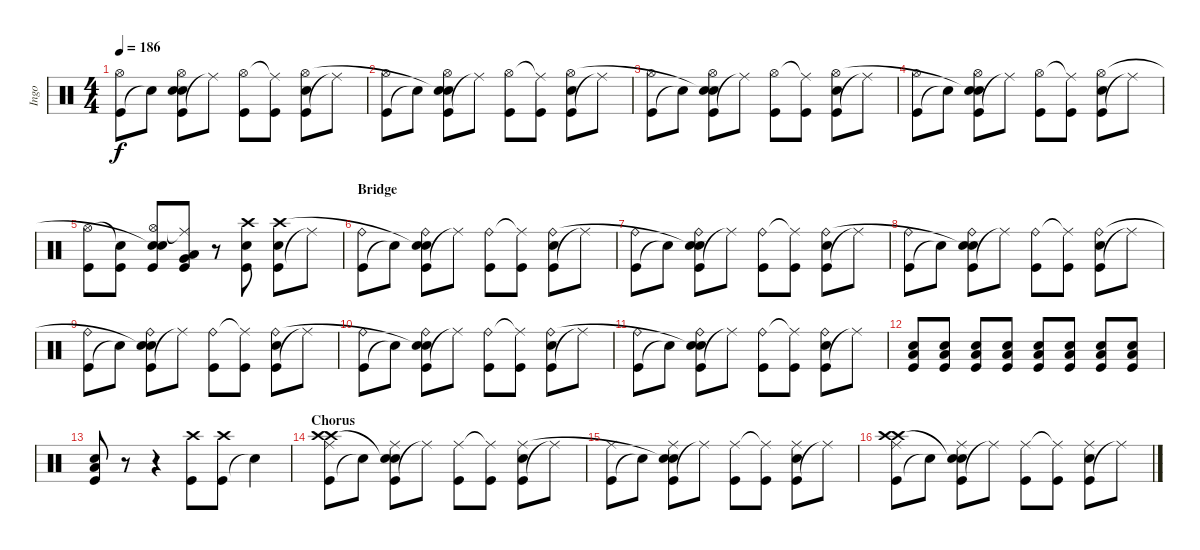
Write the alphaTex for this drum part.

\track ("Ingo" "Ingo") {instrument percussion}
\staff {score}
\articulation defaults
\ts (4 4)
\tempo 186
\clef neutral
\ks c
("Kick (hit)" "Hi-Hat (open)").8{dy f} "Snare (hit)"{t}.8 ("Kick (hit)" "Snare (hit) 2" "Snare (hit)"{t} "Hi-Hat (open)").8 "Ride (middle)"{t}.8 ("Kick (hit)" "Hi-Hat (open)").8 ("Kick (hit)" "Ride (middle)"{t}).8 ("Kick (hit)" "Snare (hit) 2" "Hi-Hat (open)").8 "Ride (middle)"{t}.8 |
("Kick (hit)" "Hi-Hat (open)").8 "Snare (hit)"{t}.8 ("Kick (hit)" "Snare (hit) 2" "Snare (hit)"{t} "Hi-Hat (open)").8 "Ride (middle)"{t}.8 ("Kick (hit)" "Hi-Hat (open)").8 ("Kick (hit)" "Ride (middle)"{t}).8 ("Kick (hit)" "Snare (hit) 2" "Hi-Hat (open)").8 "Ride (middle)"{t}.8 |
("Kick (hit)" "Hi-Hat (open)").8 "Snare (hit)"{t}.8 ("Kick (hit)" "Snare (hit) 2" "Snare (hit)"{t} "Hi-Hat (open)").8 "Ride (middle)"{t}.8 ("Kick (hit)" "Hi-Hat (open)").8 ("Kick (hit)" "Ride (middle)"{t}).8 ("Kick (hit)" "Snare (hit) 2" "Hi-Hat (open)").8 "Ride (middle)"{t}.8 |
("Kick (hit)" "Hi-Hat (open)").8 "Snare (hit)"{t}.8 ("Kick (hit)" "Snare (hit) 2" "Snare (hit)"{t} "Hi-Hat (open)").8 "Ride (middle)"{t}.8 ("Kick (hit)" "Hi-Hat (open)").8 ("Kick (hit)" "Ride (middle)"{t}).8 ("Kick (hit)" "Snare (hit) 2" "Hi-Hat (open)").8 "Ride (middle)"{t}.8 |
("Kick (hit)" "Hi-Hat (open)").8 ("Kick (hit)" "Snare (hit)"{t}).8 ("Kick (hit)" "Snare (hit) 2" "Snare (hit)"{t} "Hi-Hat (open)").8 ("Kick (hit)" "Low Tom (hit)" "Very Low Tom (hit)" "Ride (middle)"{t}).8 r.8 ("Kick (hit)" "Snare (hit) 2" "Crash high (hit)").8 ("Kick (hit)" "Snare (hit) 2" "Crash high (hit)").8 "Ride (middle)"{t}.8 |
\section ("" "Bridge")
("Kick (hit)" "Ride (bell)").8 "Snare (hit)"{t}.8 ("Kick (hit)" "Snare (hit) 2" "Snare (hit)"{t} "Ride (bell)").8 "Ride (middle)"{t}.8 ("Kick (hit)" "Ride (bell)").8 ("Kick (hit)" "Ride (middle)"{t}).8 ("Kick (hit)" "Snare (hit) 2" "Ride (bell)").8 "Ride (middle)"{t}.8 |
("Kick (hit)" "Ride (bell)").8 "Snare (hit)"{t}.8 ("Kick (hit)" "Snare (hit) 2" "Snare (hit)"{t} "Ride (bell)").8 "Ride (middle)"{t}.8 ("Kick (hit)" "Ride (bell)").8 ("Kick (hit)" "Ride (middle)"{t}).8 ("Kick (hit)" "Snare (hit) 2" "Ride (bell)").8 "Ride (middle)"{t}.8 |
("Kick (hit)" "Ride (bell)").8 "Snare (hit)"{t}.8 ("Kick (hit)" "Snare (hit) 2" "Snare (hit)"{t} "Ride (bell)").8 "Ride (middle)"{t}.8 ("Kick (hit)" "Ride (bell)").8 ("Kick (hit)" "Ride (middle)"{t}).8 ("Kick (hit)" "Snare (hit) 2" "Ride (bell)").8 "Ride (middle)"{t}.8 |
("Kick (hit)" "Ride (bell)").8 "Snare (hit)"{t}.8 ("Kick (hit)" "Snare (hit) 2" "Snare (hit)"{t} "Ride (bell)").8 "Ride (middle)"{t}.8 ("Kick (hit)" "Ride (bell)").8 ("Kick (hit)" "Ride (middle)"{t}).8 ("Kick (hit)" "Snare (hit) 2" "Ride (bell)").8 "Ride (middle)"{t}.8 |
("Kick (hit)" "Ride (bell)").8 "Snare (hit)"{t}.8 ("Kick (hit)" "Snare (hit) 2" "Snare (hit)"{t} "Ride (bell)").8 "Ride (middle)"{t}.8 ("Kick (hit)" "Ride (bell)").8 ("Kick (hit)" "Ride (middle)"{t}).8 ("Kick (hit)" "Snare (hit) 2" "Ride (bell)").8 "Ride (middle)"{t}.8 |
("Kick (hit)" "Ride (bell)").8 "Snare (hit)"{t}.8 ("Kick (hit)" "Snare (hit) 2" "Snare (hit)"{t} "Ride (bell)").8 "Ride (middle)"{t}.8 ("Kick (hit)" "Ride (bell)").8 ("Kick (hit)" "Ride (middle)"{t}).8 ("Kick (hit)" "Snare (hit) 2" "Ride (bell)").8 "Ride (middle)"{t}.8 |
("Kick (hit)" "Low Tom (hit)" "Snare (hit) 2").8 ("Kick (hit)" "Low Tom (hit)" "Snare (hit) 2").8 ("Kick (hit)" "Low Tom (hit)" "Snare (hit) 2").8 ("Kick (hit)" "Low Tom (hit)" "Snare (hit) 2").8 ("Kick (hit)" "Low Tom (hit)" "Snare (hit) 2").8 ("Kick (hit)" "Low Tom (hit)" "Snare (hit) 2").8 ("Kick (hit)" "Low Tom (hit)" "Snare (hit) 2").8 ("Kick (hit)" "Low Tom (hit)" "Snare (hit) 2").8 |
("Kick (hit)" "Low Tom (hit)" "Snare (hit) 2").8 r.8 r.4 ("Kick (hit)" "Crash high (hit)").8 ("Kick (hit)" "Crash high (hit)").8 "Snare (hit)"{t}.4 |
\section ("" "Chorus")
("Kick (hit)" "Ride (middle)" "Crash high (hit)" "Crash high (hit)").8 "Snare (hit)"{t}.8 ("Kick (hit)" "Snare (hit) 2" "Snare (hit)"{t} "Ride (middle)").8 "Ride (middle)"{t}.8 ("Kick (hit)" "Ride (middle)").8 ("Kick (hit)" "Ride (middle)"{t}).8 ("Kick (hit)" "Snare (hit) 2" "Ride (middle)").8 "Ride (middle)"{t}.8 |
("Kick (hit)" "Ride (middle)").8 "Snare (hit)"{t}.8 ("Kick (hit)" "Snare (hit) 2" "Snare (hit)"{t} "Ride (middle)").8 "Ride (middle)"{t}.8 ("Kick (hit)" "Ride (middle)").8 ("Kick (hit)" "Ride (middle)"{t}).8 ("Kick (hit)" "Snare (hit) 2" "Ride (middle)").8 "Ride (middle)"{t}.8 |
("Kick (hit)" "Ride (middle)" "Crash high (hit)" "Crash high (hit)").8 "Snare (hit)"{t}.8 ("Kick (hit)" "Snare (hit) 2" "Snare (hit)"{t} "Ride (middle)").8 "Ride (middle)"{t}.8 ("Kick (hit)" "Ride (middle)").8 ("Kick (hit)" "Ride (middle)"{t}).8 ("Kick (hit)" "Snare (hit) 2" "Ride (middle)").8 "Ride (middle)"{t}.8
